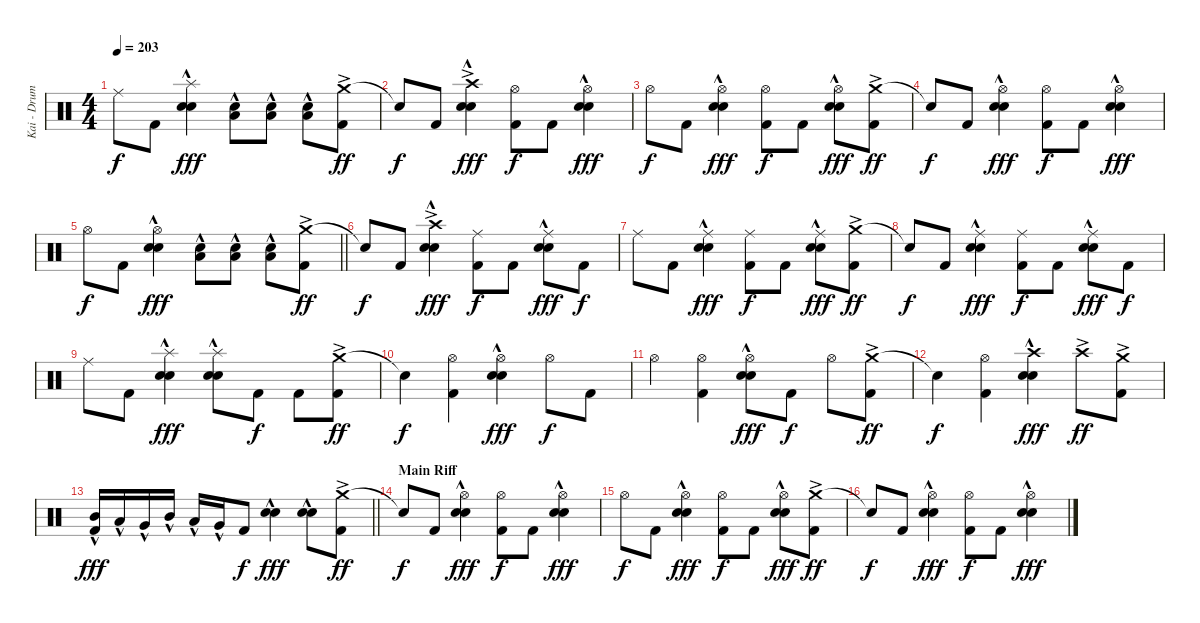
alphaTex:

\track ("Kai - Drums" "Kai - Drum") {instrument percussion}
\staff {score}
\articulation defaults
\ts (4 4)
\tempo 203
\clef neutral
\ks c "Ride (middle)".8{dy f} "Kick (hit) 2".8
("Splash (hit)"{hac} "Electric Snare (hit)"{hac} "Snare (hit) 2"{hac}).4{dy fff} ("Electric Snare (hit)"{hac} "Low Tom (hit)"{hac}).8 ("Electric Snare (hit)"{hac} "Low Tom (hit)"{hac}).8 ("Electric Snare (hit)"{hac} "Low Tom (hit)"{hac}).8 ("Crash medium (hit)"{ac} "Kick (hit) 2").8{dy ff} |
"Snare (hit)"{t}.8{dy f} "Kick (hit) 2".8 ("Crash high (hit)"{ac} "Electric Snare (hit)"{hac} "Snare (hit) 2"{hac}).4{dy fff} ("Hi-Hat (open)" "Kick (hit) 2").8{dy f} "Kick (hit) 2".8 ("Hi-Hat (open)" "Electric Snare (hit)"{hac} "Snare (hit) 2"{hac}).4{dy fff} |
"Hi-Hat (open)".8{dy f} "Kick (hit) 2".8 ("Hi-Hat (open)" "Electric Snare (hit)"{hac} "Snare (hit) 2"{hac}).4{dy fff} ("Hi-Hat (open)" "Kick (hit) 2").8{dy f} "Kick (hit) 2".8 ("Hi-Hat (open)" "Electric Snare (hit)"{hac} "Snare (hit) 2"{hac}).8{dy fff} ("Crash medium (hit)"{ac} "Kick (hit) 2").8{dy ff} |
"Snare (hit)"{t}.8{dy f} "Kick (hit) 2".8 ("Hi-Hat (open)" "Electric Snare (hit)"{hac} "Snare (hit) 2"{hac}).4{dy fff} ("Hi-Hat (open)" "Kick (hit) 2").8{dy f} "Kick (hit) 2".8 ("Hi-Hat (open)" "Electric Snare (hit)"{hac} "Snare (hit) 2"{hac}).4{dy fff} |
\barLineRight lightlight "Hi-Hat (open)".8{dy f} "Kick (hit) 2".8
("Hi-Hat (open)" "Electric Snare (hit)"{hac} "Snare (hit) 2"{hac}).4{dy fff} ("Electric Snare (hit)"{hac} "Low Tom (hit)"{hac}).8 ("Electric Snare (hit)"{hac} "Low Tom (hit)"{hac}).8 ("Electric Snare (hit)"{hac} "Low Tom (hit)"{hac}).8 ("Crash medium (hit)"{ac} "Kick (hit) 2").8{dy ff} |
\section ("" "")
"Snare (hit)"{t}.8{dy f} "Kick (hit) 2".8 ("Crash high (hit)"{ac} "Electric Snare (hit)"{hac} "Snare (hit) 2"{hac}).4{dy fff} ("Ride (middle)" "Kick (hit) 2").8{dy f} "Kick (hit) 2".8 ("Ride (middle)" "Electric Snare (hit)"{hac} "Snare (hit) 2"{hac}).8{dy fff} "Kick (hit) 2".8{dy f} |
"Ride (middle)".8 "Kick (hit) 2".8 ("Ride (middle)" "Electric Snare (hit)"{hac} "Snare (hit) 2"{hac}).4{dy fff} ("Ride (middle)" "Kick (hit) 2").8{dy f} "Kick (hit) 2".8 ("Ride (middle)" "Electric Snare (hit)"{hac} "Snare (hit) 2"{hac}).8{dy fff} ("Crash medium (hit)"{ac} "Kick (hit) 2").8{dy ff} |
"Snare (hit)"{t}.8{dy f} "Kick (hit) 2".8 ("Ride (middle)" "Electric Snare (hit)"{hac} "Snare (hit) 2"{hac}).4{dy fff} ("Ride (middle)" "Kick (hit) 2").8{dy f} "Kick (hit) 2".8 ("Ride (middle)" "Electric Snare (hit)"{hac} "Snare (hit) 2"{hac}).8{dy fff} "Kick (hit) 2".8{dy f} |
"Ride (middle)".8 "Kick (hit) 2".8 ("Splash (hit)"{hac} "Electric Snare (hit)"{hac} "Snare (hit) 2"{hac}).4{dy fff} ("Splash (hit)"{hac} "Electric Snare (hit)"{hac} "Snare (hit) 2"{hac}).8 "Kick (hit) 2".8{dy f} "Kick (hit) 2".8 ("Crash medium (hit)"{ac} "Kick (hit) 2").8{dy ff} |
"Snare (hit)"{t}.4{dy f} ("Hi-Hat (open)" "Kick (hit) 2").4 ("Hi-Hat (open)" "Electric Snare (hit)"{hac} "Snare (hit) 2"{hac}).4{dy fff} "Hi-Hat (open)".8{dy f} "Kick (hit) 2".8 |
"Hi-Hat (open)".4 ("Hi-Hat (open)" "Kick (hit) 2").4 ("Hi-Hat (open)" "Electric Snare (hit)"{hac} "Snare (hit) 2"{hac}).8{dy fff} "Kick (hit) 2".8{dy f} "Hi-Hat (open)".8 ("Crash medium (hit)"{ac} "Kick (hit) 2").8{dy ff} |
"Snare (hit)"{t}.4{dy f} ("Hi-Hat (open)" "Kick (hit) 2").4 ("Crash high (hit)" "Electric Snare (hit)"{hac} "Snare (hit) 2"{hac}).4{dy fff} "Crash high (hit)"{ac}.8{dy ff} ("Crash medium (hit)"{ac} "Kick (hit) 2").8 |
\barLineRight lightlight
("Mid Tom (hit)"{hac} "Kick (hit) 2").16{dy fff} "Low Tom (hit)"{hac}.16 "Very Low Tom (hit)"{hac}.16 "Mid Tom (hit)"{hac}.16 "Low Tom (hit)"{hac}.16 "Very Low Tom (hit)"{hac}.16 "Kick (hit) 2".8{dy f} ("Electric Snare (hit)" "Snare (hit) 2"{hac}).4{dy fff} ("Electric Snare (hit)" "Snare (hit) 2"{hac}).8 ("Crash medium (hit)"{ac} "Kick (hit) 2").8{dy ff} |
\section ("" "Main Riff")
"Snare (hit)"{t}.8{dy f} "Kick (hit) 2".8 ("Hi-Hat (open)" "Electric Snare (hit)"{hac} "Snare (hit) 2"{hac}).4{dy fff} ("Hi-Hat (open)" "Kick (hit) 2").8{dy f} "Kick (hit) 2".8 ("Hi-Hat (open)" "Electric Snare (hit)"{hac} "Snare (hit) 2"{hac}).4{dy fff} |
"Hi-Hat (open)".8{dy f} "Kick (hit) 2".8 ("Hi-Hat (open)" "Electric Snare (hit)"{hac} "Snare (hit) 2"{hac}).4{dy fff} ("Hi-Hat (open)" "Kick (hit) 2").8{dy f} "Kick (hit) 2".8 ("Hi-Hat (open)" "Electric Snare (hit)"{hac} "Snare (hit) 2"{hac}).8{dy fff} ("Crash medium (hit)"{ac} "Kick (hit) 2").8{dy ff} |
"Snare (hit)"{t}.8{dy f} "Kick (hit) 2".8 ("Hi-Hat (open)" "Electric Snare (hit)"{hac} "Snare (hit) 2"{hac}).4{dy fff} ("Hi-Hat (open)" "Kick (hit) 2").8{dy f} "Kick (hit) 2".8 ("Hi-Hat (open)" "Electric Snare (hit)"{hac} "Snare (hit) 2"{hac}).4{dy fff}
